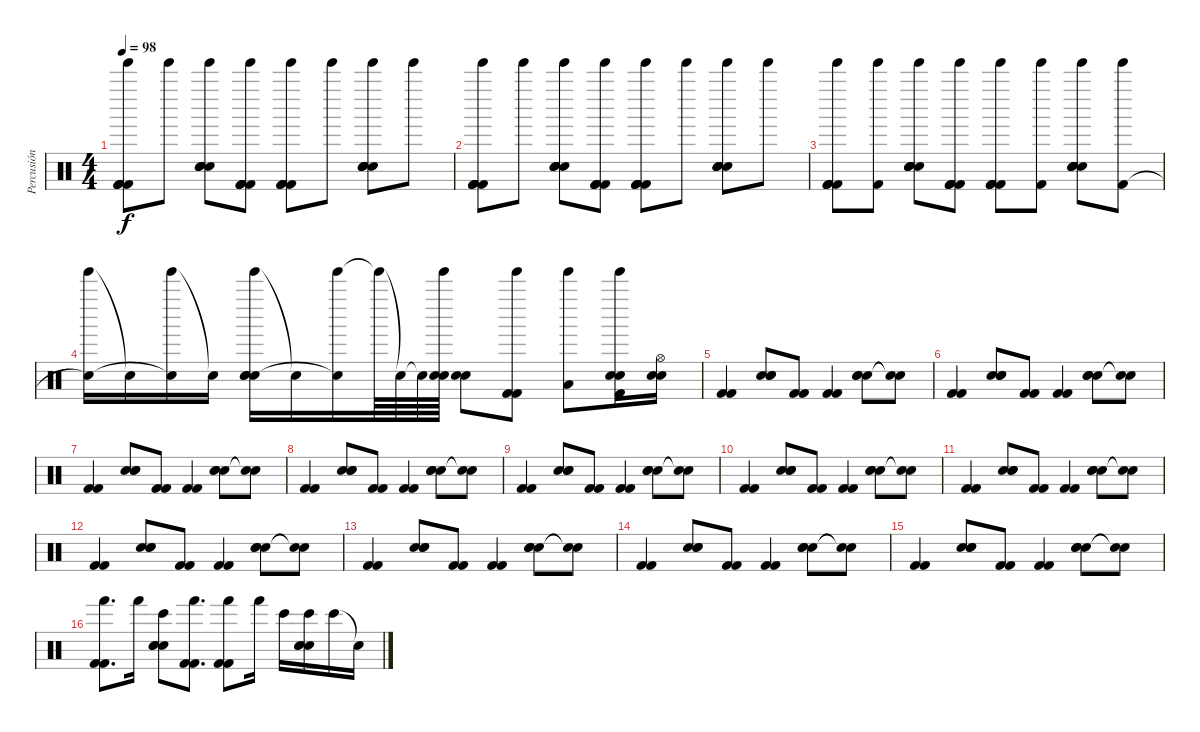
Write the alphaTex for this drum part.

\track ("Percusión" "Percusión") {instrument percussion}
\staff {score}
\articulation defaults
\ts (4 4)
\tempo 98
\clef neutral
\ks c
("Tinkle Bell (hit)" "Kick (hit) 2" "Kick (hit) 2" "Kick (hit) 2" "Kick (hit) 2").8{dy f} "Tinkle Bell (hit)".8 ("Tinkle Bell (hit)" "Electric Snare (hit)" "Electric Snare (hit)" "Electric Snare (hit)" "Electric Snare (hit)").8 ("Tinkle Bell (hit)" "Kick (hit) 2" "Kick (hit) 2" "Kick (hit) 2" "Kick (hit) 2").8 ("Tinkle Bell (hit)" "Kick (hit) 2" "Kick (hit) 2" "Kick (hit) 2" "Kick (hit) 2").8 "Tinkle Bell (hit)".8 ("Tinkle Bell (hit)" "Electric Snare (hit)" "Electric Snare (hit)" "Electric Snare (hit)" "Electric Snare (hit)" "Hand Clap (hit)").8 "Tinkle Bell (hit)".8 |
("Tinkle Bell (hit)" "Kick (hit) 2" "Kick (hit) 2" "Kick (hit) 2" "Kick (hit) 2").8 "Tinkle Bell (hit)".8 ("Tinkle Bell (hit)" "Electric Snare (hit)" "Electric Snare (hit)" "Electric Snare (hit)" "Electric Snare (hit)").8 ("Tinkle Bell (hit)" "Kick (hit) 2" "Kick (hit) 2" "Kick (hit) 2" "Kick (hit) 2").8 ("Tinkle Bell (hit)" "Kick (hit) 2" "Kick (hit) 2" "Kick (hit) 2" "Kick (hit) 2").8 "Tinkle Bell (hit)".8 ("Tinkle Bell (hit)" "Electric Snare (hit)" "Electric Snare (hit)" "Electric Snare (hit)" "Electric Snare (hit)" "Hand Clap (hit)").8 "Tinkle Bell (hit)".8 |
("Tinkle Bell (hit)" "Kick (hit) 2" "Kick (hit) 2" "Kick (hit) 2" "Kick (hit) 2").8 ("Tinkle Bell (hit)" "Kick (hit) 2").8 ("Tinkle Bell (hit)" "Electric Snare (hit)" "Electric Snare (hit)" "Electric Snare (hit)" "Electric Snare (hit)").8 ("Tinkle Bell (hit)" "Kick (hit) 2" "Kick (hit) 2" "Kick (hit) 2" "Kick (hit) 2").8 ("Tinkle Bell (hit)" "Kick (hit) 2" "Kick (hit) 2" "Kick (hit) 2" "Kick (hit) 2").8 ("Tinkle Bell (hit)" "Kick (hit) 2").8 ("Tinkle Bell (hit)" "Electric Snare (hit)" "Electric Snare (hit)" "Electric Snare (hit)" "Electric Snare (hit)" "Hand Clap (hit)").8 ("Tinkle Bell (hit)" "Kick (hit) 2").8 |
("Tinkle Bell (hit)" "Snare (hit)"{t}).16 "Snare (hit)"{t}.16 ("Tinkle Bell (hit)" "Snare (hit)"{t}).16 "Snare (hit)"{t}.16 ("Tinkle Bell (hit)" "Electric Snare (hit)" "Electric Snare (hit)" "Electric Snare (hit)").16 "Snare (hit)"{t}.16 ("Tinkle Bell (hit)" "Snare (hit)"{t}).16 "Tinkle Bell (hit)"{t}.64 "Snare (hit)"{t}.64 "Snare (hit)"{t}.64 ("Tinkle Bell (hit)" "Electric Snare (hit)" "Electric Snare (hit)").64 ("Electric Snare (hit)" "Electric Snare (hit)").8 ("Tinkle Bell (hit)" "Kick (hit) 2" "Kick (hit) 2").8 ("Tinkle Bell (hit)" "Low Floor Tom (hit)").8 ("Tinkle Bell (hit)" "Kick (hit) 2" "Electric Snare (hit)" "Electric Snare (hit)").16 ("Electric Snare (hit)" "Electric Snare (hit)" "Hi-Hat (open)").16 |
("Kick (hit) 2" "Kick (hit) 2").4 ("Electric Snare (hit)" "Electric Snare (hit)" "Electric Snare (hit)").8 ("Kick (hit) 2" "Kick (hit) 2").8 ("Kick (hit) 2" "Kick (hit) 2").4 ("Electric Snare (hit)" "Electric Snare (hit)" "Electric Snare (hit)").8 ("Snare (hit)"{t} "Snare (hit)"{t}).8 |
("Kick (hit) 2" "Kick (hit) 2").4 ("Electric Snare (hit)" "Electric Snare (hit)" "Electric Snare (hit)").8 ("Kick (hit) 2" "Kick (hit) 2").8 ("Kick (hit) 2" "Kick (hit) 2").4 ("Electric Snare (hit)" "Electric Snare (hit)" "Electric Snare (hit)").8 ("Snare (hit)"{t} "Snare (hit)"{t}).8 |
("Kick (hit) 2" "Kick (hit) 2").4 ("Electric Snare (hit)" "Electric Snare (hit)" "Electric Snare (hit)").8 ("Kick (hit) 2" "Kick (hit) 2").8 ("Kick (hit) 2" "Kick (hit) 2").4 ("Electric Snare (hit)" "Electric Snare (hit)" "Electric Snare (hit)").8 ("Snare (hit)"{t} "Snare (hit)"{t}).8 |
("Kick (hit) 2" "Kick (hit) 2").4 ("Electric Snare (hit)" "Electric Snare (hit)" "Electric Snare (hit)").8 ("Kick (hit) 2" "Kick (hit) 2").8 ("Kick (hit) 2" "Kick (hit) 2").4 ("Electric Snare (hit)" "Electric Snare (hit)" "Electric Snare (hit)").8 ("Snare (hit)"{t} "Snare (hit)"{t}).8 |
("Kick (hit) 2" "Kick (hit) 2").4 ("Electric Snare (hit)" "Electric Snare (hit)" "Electric Snare (hit)").8 ("Kick (hit) 2" "Kick (hit) 2").8 ("Kick (hit) 2" "Kick (hit) 2").4 ("Electric Snare (hit)" "Electric Snare (hit)" "Electric Snare (hit)").8 ("Snare (hit)"{t} "Snare (hit)"{t}).8 |
("Kick (hit) 2" "Kick (hit) 2").4 ("Electric Snare (hit)" "Electric Snare (hit)" "Electric Snare (hit)").8 ("Kick (hit) 2" "Kick (hit) 2").8 ("Kick (hit) 2" "Kick (hit) 2").4 ("Electric Snare (hit)" "Electric Snare (hit)" "Electric Snare (hit)").8 ("Snare (hit)"{t} "Snare (hit)"{t}).8 |
("Kick (hit) 2" "Kick (hit) 2").4 ("Electric Snare (hit)" "Electric Snare (hit)" "Electric Snare (hit)").8 ("Kick (hit) 2" "Kick (hit) 2").8 ("Kick (hit) 2" "Kick (hit) 2").4 ("Electric Snare (hit)" "Electric Snare (hit)" "Electric Snare (hit)").8 ("Snare (hit)"{t} "Snare (hit)"{t}).8 |
("Kick (hit) 2" "Kick (hit) 2").4 ("Electric Snare (hit)" "Electric Snare (hit)" "Electric Snare (hit)").8 ("Kick (hit) 2" "Kick (hit) 2").8 ("Kick (hit) 2" "Kick (hit) 2").4 ("Electric Snare (hit)" "Electric Snare (hit)" "Electric Snare (hit)").8 ("Snare (hit)"{t} "Snare (hit)"{t}).8 |
("Kick (hit) 2" "Kick (hit) 2").4 ("Electric Snare (hit)" "Electric Snare (hit)" "Electric Snare (hit)").8 ("Kick (hit) 2" "Kick (hit) 2").8 ("Kick (hit) 2" "Kick (hit) 2").4 ("Electric Snare (hit)" "Electric Snare (hit)" "Electric Snare (hit)").8 ("Snare (hit)"{t} "Snare (hit)"{t}).8 |
("Kick (hit) 2" "Kick (hit) 2").4 ("Electric Snare (hit)" "Electric Snare (hit)" "Electric Snare (hit)").8 ("Kick (hit) 2" "Kick (hit) 2").8 ("Kick (hit) 2" "Kick (hit) 2").4 ("Electric Snare (hit)" "Electric Snare (hit)" "Electric Snare (hit)").8 ("Snare (hit)"{t} "Snare (hit)"{t}).8 |
("Kick (hit) 2" "Kick (hit) 2").4 ("Electric Snare (hit)" "Electric Snare (hit)" "Electric Snare (hit)").8 ("Kick (hit) 2" "Kick (hit) 2").8 ("Kick (hit) 2" "Kick (hit) 2").4 ("Electric Snare (hit)" "Electric Snare (hit)" "Electric Snare (hit)").8 ("Snare (hit)"{t} "Snare (hit)"{t}).8 |
("Hand (hit)" "Kick (hit) 2" "Kick (hit) 2").8{d} "Hand (hit)".16 ("Bongo High (hit)" "Electric Snare (hit)" "Electric Snare (hit)" "Electric Snare (hit)").8 ("Hand (hit)" "Kick (hit) 2" "Kick (hit) 2").8{d} ("Hand (hit)" "Kick (hit) 2" "Kick (hit) 2").8 "Hand (hit)".16 "Bongo High (hit)".16 ("Bongo High (hit)" "Electric Snare (hit)" "Electric Snare (hit)" "Electric Snare (hit)").16 "Bongo High (hit)".16 "Snare (hit)"{t}.16
